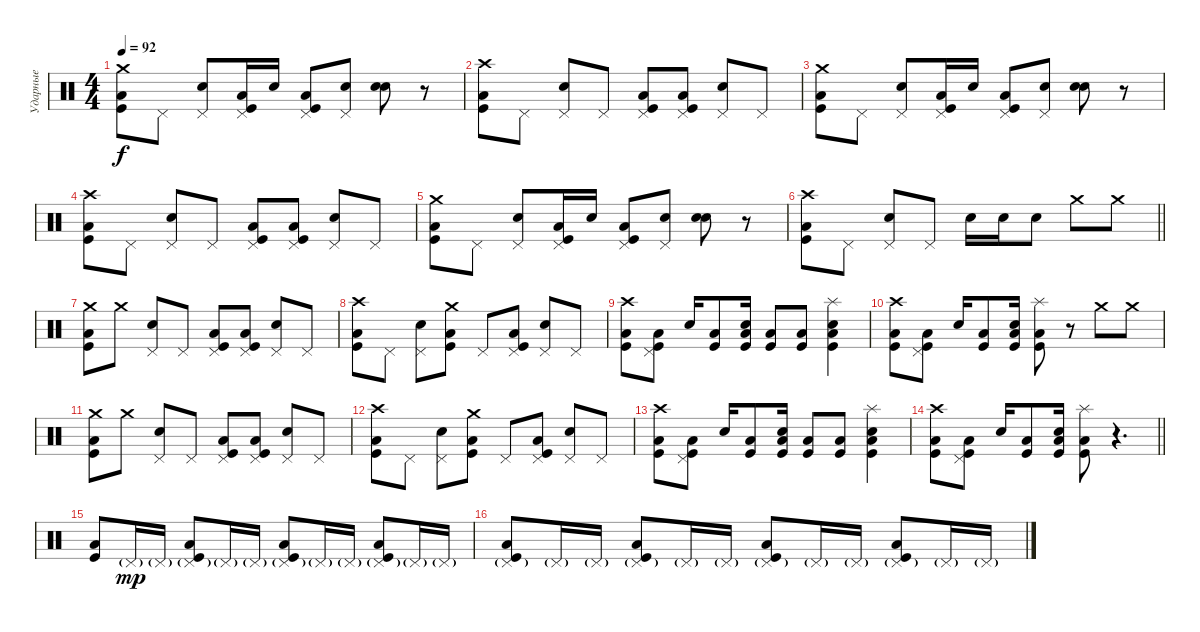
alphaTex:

\track ("Ударные" "Ударные") {instrument percussion}
\staff {score}
\articulation defaults
\ts (4 4)
\tempo 92
\clef neutral
\ks c
("Crash medium (hit)" "Low Tom (hit)" "Kick (hit)").8{dy f} "Pedal Hi-Hat (hit)".8 ("Pedal Hi-Hat (hit)" "Electric Snare (hit)").8 ("Pedal Hi-Hat (hit)" "Low Tom (hit)" "Kick (hit)").16 "Electric Snare (hit)".16 ("Pedal Hi-Hat (hit)" "Low Tom (hit)" "Kick (hit)").8 ("Pedal Hi-Hat (hit)" "Electric Snare (hit)").8 ("Snare (hit) 2" "Electric Snare (hit)").8 r.8 |
("Crash high (hit)" "Low Tom (hit)" "Kick (hit)").8 "Pedal Hi-Hat (hit)".8 ("Pedal Hi-Hat (hit)" "Electric Snare (hit)").8 "Pedal Hi-Hat (hit)".8 ("Pedal Hi-Hat (hit)" "Low Tom (hit)" "Kick (hit)").8 ("Pedal Hi-Hat (hit)" "Low Tom (hit)" "Kick (hit)").8 ("Pedal Hi-Hat (hit)" "Electric Snare (hit)").8 "Pedal Hi-Hat (hit)".8 |
("Crash medium (hit)" "Low Tom (hit)" "Kick (hit)").8 "Pedal Hi-Hat (hit)".8 ("Pedal Hi-Hat (hit)" "Electric Snare (hit)").8 ("Pedal Hi-Hat (hit)" "Low Tom (hit)" "Kick (hit)").16 "Electric Snare (hit)".16 ("Pedal Hi-Hat (hit)" "Low Tom (hit)" "Kick (hit)").8 ("Pedal Hi-Hat (hit)" "Electric Snare (hit)").8 ("Snare (hit) 2" "Electric Snare (hit)").8 r.8 |
("Crash high (hit)" "Low Tom (hit)" "Kick (hit)").8 "Pedal Hi-Hat (hit)".8 ("Pedal Hi-Hat (hit)" "Electric Snare (hit)").8 "Pedal Hi-Hat (hit)".8 ("Pedal Hi-Hat (hit)" "Low Tom (hit)" "Kick (hit)").8 ("Pedal Hi-Hat (hit)" "Low Tom (hit)" "Kick (hit)").8 ("Pedal Hi-Hat (hit)" "Electric Snare (hit)").8 "Pedal Hi-Hat (hit)".8 |
("Crash medium (hit)" "Low Tom (hit)" "Kick (hit)").8 "Pedal Hi-Hat (hit)".8 ("Pedal Hi-Hat (hit)" "Electric Snare (hit)").8 ("Pedal Hi-Hat (hit)" "Low Tom (hit)" "Kick (hit)").16 "Electric Snare (hit)".16 ("Pedal Hi-Hat (hit)" "Low Tom (hit)" "Kick (hit)").8 ("Pedal Hi-Hat (hit)" "Electric Snare (hit)").8 ("Snare (hit) 2" "Electric Snare (hit)").8 r.8 |
\barLineRight lightlight
("Crash high (hit)" "Low Tom (hit)" "Kick (hit)").8 "Pedal Hi-Hat (hit)".8 ("Pedal Hi-Hat (hit)" "Electric Snare (hit)").8 "Pedal Hi-Hat (hit)".8 "Snare (hit) 2".16 "Electric Snare (hit)".16 "Snare (hit) 2".8 "Crash medium (hit)".8 "Crash medium (hit)".8 |
("Crash medium (hit)" "Low Tom (hit)" "Kick (hit)").8 "Crash medium (hit)".8 ("Pedal Hi-Hat (hit)" "Electric Snare (hit)").8 "Pedal Hi-Hat (hit)".8 ("Pedal Hi-Hat (hit)" "Low Tom (hit)" "Kick (hit)").8 ("Pedal Hi-Hat (hit)" "Low Tom (hit)" "Kick (hit)").8 ("Pedal Hi-Hat (hit)" "Electric Snare (hit)").8 "Pedal Hi-Hat (hit)".8 |
("Crash high (hit)" "Low Tom (hit)" "Kick (hit)").8 "Pedal Hi-Hat (hit)".8 ("Pedal Hi-Hat (hit)" "Electric Snare (hit)").8 ("Crash medium (hit)" "Low Tom (hit)" "Kick (hit)").8 "Pedal Hi-Hat (hit)".8 ("Pedal Hi-Hat (hit)" "Low Tom (hit)" "Kick (hit)").8 ("Pedal Hi-Hat (hit)" "Electric Snare (hit)").8 "Pedal Hi-Hat (hit)".8 |
("Crash high (hit)" "Low Tom (hit)" "Kick (hit)").8 ("Pedal Hi-Hat (hit)" "Low Tom (hit)" "Kick (hit)").8 "Snare (hit) 2".16 ("Low Tom (hit)" "Kick (hit)").8 ("Snare (hit) 2" "Low Tom (hit)" "Kick (hit)").16 ("Low Tom (hit)" "Kick (hit)").8 ("Low Tom (hit)" "Kick (hit)").8 ("Splash (hit)" "Snare (hit) 2" "Low Tom (hit)" "Kick (hit)").4 |
("Crash high (hit)" "Low Tom (hit)" "Kick (hit)").8 ("Pedal Hi-Hat (hit)" "Low Tom (hit)" "Kick (hit)").8 "Snare (hit) 2".16 ("Low Tom (hit)" "Kick (hit)").8 ("Snare (hit) 2" "Low Tom (hit)" "Kick (hit)").16 ("Splash (hit)" "Low Tom (hit)" "Kick (hit)").8 r.8 "Crash medium (hit)".8 "Crash medium (hit)".8 |
("Crash medium (hit)" "Low Tom (hit)" "Kick (hit)").8 "Crash medium (hit)".8 ("Pedal Hi-Hat (hit)" "Electric Snare (hit)").8 "Pedal Hi-Hat (hit)".8 ("Pedal Hi-Hat (hit)" "Low Tom (hit)" "Kick (hit)").8 ("Pedal Hi-Hat (hit)" "Low Tom (hit)" "Kick (hit)").8 ("Pedal Hi-Hat (hit)" "Electric Snare (hit)").8 "Pedal Hi-Hat (hit)".8 |
("Crash high (hit)" "Low Tom (hit)" "Kick (hit)").8 "Pedal Hi-Hat (hit)".8 ("Pedal Hi-Hat (hit)" "Electric Snare (hit)").8 ("Crash medium (hit)" "Low Tom (hit)" "Kick (hit)").8 "Pedal Hi-Hat (hit)".8 ("Pedal Hi-Hat (hit)" "Low Tom (hit)" "Kick (hit)").8 ("Pedal Hi-Hat (hit)" "Electric Snare (hit)").8 "Pedal Hi-Hat (hit)".8 |
("Crash high (hit)" "Low Tom (hit)" "Kick (hit)").8 ("Pedal Hi-Hat (hit)" "Low Tom (hit)" "Kick (hit)").8 "Snare (hit) 2".16 ("Low Tom (hit)" "Kick (hit)").8 ("Snare (hit) 2" "Low Tom (hit)" "Kick (hit)").16 ("Low Tom (hit)" "Kick (hit)").8 ("Low Tom (hit)" "Kick (hit)").8 ("Splash (hit)" "Snare (hit) 2" "Low Tom (hit)" "Kick (hit)").4 |
\barLineRight lightlight
("Crash high (hit)" "Low Tom (hit)" "Kick (hit)").8 ("Pedal Hi-Hat (hit)" "Low Tom (hit)" "Kick (hit)").8 "Snare (hit) 2".16 ("Low Tom (hit)" "Kick (hit)").8 ("Snare (hit) 2" "Low Tom (hit)" "Kick (hit)").16 ("Splash (hit)" "Low Tom (hit)" "Kick (hit)").8 r.4{d} |
("Low Tom (hit)" "Kick (hit)").8 "Pedal Hi-Hat (hit)"{g}.16{dy mp} "Pedal Hi-Hat (hit)"{g}.16 ("Pedal Hi-Hat (hit)"{g} "Low Tom (hit)" "Kick (hit)").8 "Pedal Hi-Hat (hit)"{g}.16 "Pedal Hi-Hat (hit)"{g}.16 ("Pedal Hi-Hat (hit)"{g} "Low Tom (hit)" "Kick (hit)").8 "Pedal Hi-Hat (hit)"{g}.16 "Pedal Hi-Hat (hit)"{g}.16 ("Pedal Hi-Hat (hit)"{g} "Low Tom (hit)" "Kick (hit)").8 "Pedal Hi-Hat (hit)"{g}.16 "Pedal Hi-Hat (hit)"{g}.16 |
("Pedal Hi-Hat (hit)"{g} "Low Tom (hit)" "Kick (hit)").8 "Pedal Hi-Hat (hit)"{g}.16 "Pedal Hi-Hat (hit)"{g}.16 ("Pedal Hi-Hat (hit)"{g} "Low Tom (hit)" "Kick (hit)").8 "Pedal Hi-Hat (hit)"{g}.16 "Pedal Hi-Hat (hit)"{g}.16 ("Pedal Hi-Hat (hit)"{g} "Low Tom (hit)" "Kick (hit)").8 "Pedal Hi-Hat (hit)"{g}.16 "Pedal Hi-Hat (hit)"{g}.16 ("Pedal Hi-Hat (hit)"{g} "Low Tom (hit)" "Kick (hit)").8 "Pedal Hi-Hat (hit)"{g}.16 "Pedal Hi-Hat (hit)"{g}.16
